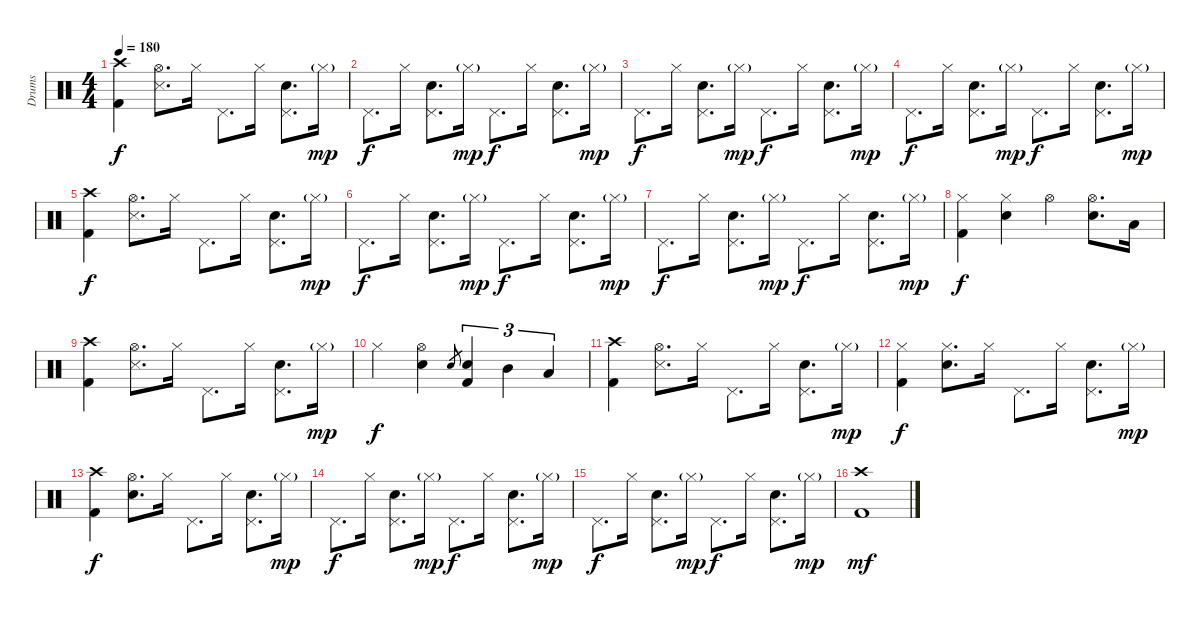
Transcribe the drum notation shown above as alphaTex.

\track ("Drums" "Drums") {instrument percussion}
\staff {score}
\articulation defaults
\ts (4 4)
\tempo 180
\clef neutral
\ks c
("Crash high (hit)" "Kick (hit) 2").4{dy f} ("Hi-Hat (open)" "Snare (side stick) 3").8{d} "Hi-Hat (closed)".16 "Pedal Hi-Hat (hit)".8{d} "Hi-Hat (closed)".16 ("Pedal Hi-Hat (hit)" "Snare (hit) 2").8{d} "Hi-Hat (closed)"{g}.16{dy mp} |
"Pedal Hi-Hat (hit)".8{d dy f} "Hi-Hat (closed)".16 ("Pedal Hi-Hat (hit)" "Snare (hit) 2").8{d} "Hi-Hat (closed)"{g}.16{dy mp} "Pedal Hi-Hat (hit)".8{d dy f} "Hi-Hat (closed)".16 ("Pedal Hi-Hat (hit)" "Snare (hit) 2").8{d} "Hi-Hat (closed)"{g}.16{dy mp} |
"Pedal Hi-Hat (hit)".8{d dy f} "Hi-Hat (closed)".16 ("Pedal Hi-Hat (hit)" "Snare (hit) 2").8{d} "Hi-Hat (closed)"{g}.16{dy mp} "Pedal Hi-Hat (hit)".8{d dy f} "Hi-Hat (closed)".16 ("Pedal Hi-Hat (hit)" "Snare (hit) 2").8{d} "Hi-Hat (closed)"{g}.16{dy mp} |
"Pedal Hi-Hat (hit)".8{d dy f} "Hi-Hat (closed)".16 ("Pedal Hi-Hat (hit)" "Snare (hit) 2").8{d} "Hi-Hat (closed)"{g}.16{dy mp} "Pedal Hi-Hat (hit)".8{d dy f} "Hi-Hat (closed)".16 ("Pedal Hi-Hat (hit)" "Snare (hit) 2").8{d} "Hi-Hat (closed)"{g}.16{dy mp} |
("Crash high (hit)" "Kick (hit) 2").4{dy f} ("Hi-Hat (open)" "Snare (side stick) 3").8{d} "Hi-Hat (closed)".16 "Pedal Hi-Hat (hit)".8{d} "Hi-Hat (closed)".16 ("Pedal Hi-Hat (hit)" "Snare (hit) 2").8{d} "Hi-Hat (closed)"{g}.16{dy mp} |
"Pedal Hi-Hat (hit)".8{d dy f} "Hi-Hat (closed)".16 ("Pedal Hi-Hat (hit)" "Snare (hit) 2").8{d} "Hi-Hat (closed)"{g}.16{dy mp} "Pedal Hi-Hat (hit)".8{d dy f} "Hi-Hat (closed)".16 ("Pedal Hi-Hat (hit)" "Snare (hit) 2").8{d} "Hi-Hat (closed)"{g}.16{dy mp} |
"Pedal Hi-Hat (hit)".8{d dy f} "Hi-Hat (closed)".16 ("Pedal Hi-Hat (hit)" "Snare (hit) 2").8{d} "Hi-Hat (closed)"{g}.16{dy mp} "Pedal Hi-Hat (hit)".8{d dy f} "Hi-Hat (closed)".16 ("Pedal Hi-Hat (hit)" "Snare (hit) 2").8{d} "Hi-Hat (closed)"{g}.16{dy mp} |
("Hi-Hat (closed)" "Kick (hit) 2").4{dy f} ("Hi-Hat (closed)" "Snare (hit) 2").4 "Hi-Hat (open)".4 ("Hi-Hat (open)" "Snare (hit) 2").8{d} "Low Tom (hit)".16 |
("Crash high (hit)" "Kick (hit) 2").4 ("Hi-Hat (open)" "Snare (side stick) 3").8{d} "Hi-Hat (closed)".16 "Pedal Hi-Hat (hit)".8{d} "Hi-Hat (closed)".16 ("Pedal Hi-Hat (hit)" "Snare (hit) 2").8{d} "Hi-Hat (closed)"{g}.16{dy mp} |
"Hi-Hat (closed)".4{dy f} ("Hi-Hat (open)" "Snare (hit) 2").4 "Snare (hit) 2".8{gr} ("Snare (hit) 2" "Kick (hit) 2").4{tu (3 2)} "Mid Tom (hit)".4{tu (3 2)} "Low Tom (hit)".4{tu (3 2)} |
("Crash high (hit)" "Kick (hit) 2").4 ("Hi-Hat (open)" "Snare (side stick) 3").8{d} "Hi-Hat (closed)".16 "Pedal Hi-Hat (hit)".8{d} "Hi-Hat (closed)".16 ("Pedal Hi-Hat (hit)" "Snare (hit) 2").8{d} "Hi-Hat (closed)"{g}.16{dy mp} |
("Hi-Hat (closed)" "Kick (hit) 2").4{dy f} ("Hi-Hat (closed)" "Snare (hit) 2").8{d} "Hi-Hat (closed)".16 "Pedal Hi-Hat (hit)".8{d} "Hi-Hat (closed)".16 ("Pedal Hi-Hat (hit)" "Snare (hit) 2").8{d} "Hi-Hat (closed)"{g}.16{dy mp} |
("Crash high (hit)" "Kick (hit) 2").4{dy f} ("Hi-Hat (open)" "Snare (hit) 2").8{d} "Hi-Hat (closed)".16 "Pedal Hi-Hat (hit)".8{d} "Hi-Hat (closed)".16 ("Pedal Hi-Hat (hit)" "Snare (hit) 2").8{d} "Hi-Hat (closed)"{g}.16{dy mp} |
"Pedal Hi-Hat (hit)".8{d dy f} "Hi-Hat (closed)".16 ("Pedal Hi-Hat (hit)" "Snare (hit) 2").8{d} "Hi-Hat (closed)"{g}.16{dy mp} "Pedal Hi-Hat (hit)".8{d dy f} "Hi-Hat (closed)".16 ("Pedal Hi-Hat (hit)" "Snare (hit) 2").8{d} "Hi-Hat (closed)"{g}.16{dy mp} |
"Pedal Hi-Hat (hit)".8{d dy f} "Hi-Hat (closed)".16 ("Pedal Hi-Hat (hit)" "Snare (hit) 2").8{d} "Hi-Hat (closed)"{g}.16{dy mp} "Pedal Hi-Hat (hit)".8{d dy f} "Hi-Hat (closed)".16 ("Pedal Hi-Hat (hit)" "Snare (hit) 2").8{d} "Hi-Hat (closed)"{g}.16{dy mp} |
("Crash high (hit)" "Kick (hit) 2").1{dy mf}
